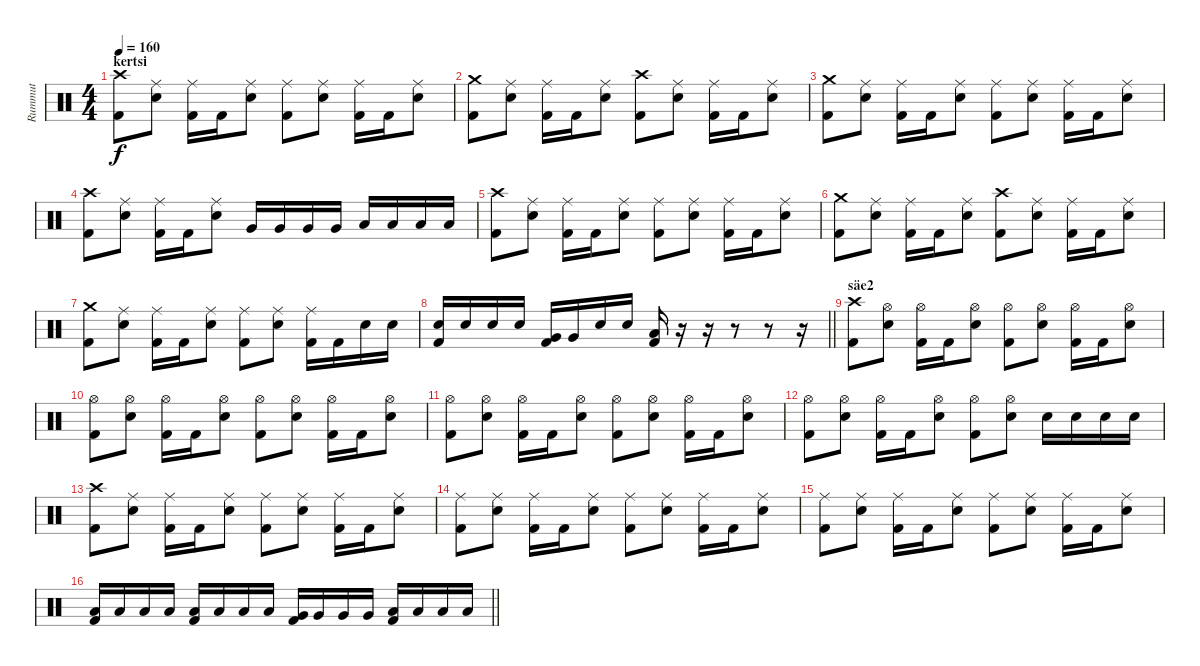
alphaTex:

\track ("Rummut" "Rummut") {instrument percussion}
\staff {score}
\articulation defaults
\ts (4 4)
\section ("" "kertsi")
\tempo 160
\clef neutral
\ks c
("Crash high (hit)" "Kick (hit) 2").8{dy f} ("Ride (middle)" "Snare (hit) 2").8 ("Ride (middle)" "Kick (hit) 2").16 "Kick (hit) 2".16 ("Ride (middle)" "Snare (hit) 2").8 ("Ride (middle)" "Kick (hit) 2").8 ("Ride (middle)" "Snare (hit) 2").8 ("Ride (middle)" "Kick (hit) 2").16 "Kick (hit) 2".16 ("Ride (middle)" "Snare (hit) 2").8 |
("Crash medium (hit)" "Kick (hit) 2").8 ("Ride (middle)" "Snare (hit) 2").8 ("Ride (middle)" "Kick (hit) 2").16 "Kick (hit) 2".16 ("Ride (middle)" "Snare (hit) 2").8 ("Crash high (hit)" "Kick (hit) 2").8 ("Ride (middle)" "Snare (hit) 2").8 ("Ride (middle)" "Kick (hit) 2").16 "Kick (hit) 2".16 ("Ride (middle)" "Snare (hit) 2").8 |
("Crash medium (hit)" "Kick (hit) 2").8 ("Ride (middle)" "Snare (hit) 2").8 ("Ride (middle)" "Kick (hit) 2").16 "Kick (hit) 2".16 ("Ride (middle)" "Snare (hit) 2").8 ("Ride (middle)" "Kick (hit) 2").8 ("Ride (middle)" "Snare (hit) 2").8 ("Ride (middle)" "Kick (hit) 2").16 "Kick (hit) 2".16 ("Ride (middle)" "Snare (hit) 2").8 |
("Crash high (hit)" "Kick (hit) 2").8 ("Ride (middle)" "Snare (hit) 2").8 ("Ride (middle)" "Kick (hit) 2").16 "Kick (hit) 2".16 ("Ride (middle)" "Snare (hit) 2").8 "Very Low Tom (hit)".16 "Very Low Tom (hit)".16 "Very Low Tom (hit)".16 "Very Low Tom (hit)".16 "Low Floor Tom (hit)".16 "Low Floor Tom (hit)".16 "Low Floor Tom (hit)".16 "Low Floor Tom (hit)".16 |
("Crash high (hit)" "Kick (hit) 2").8 ("Ride (middle)" "Snare (hit) 2").8 ("Ride (middle)" "Kick (hit) 2").16 "Kick (hit) 2".16 ("Ride (middle)" "Snare (hit) 2").8 ("Ride (middle)" "Kick (hit) 2").8 ("Ride (middle)" "Snare (hit) 2").8 ("Ride (middle)" "Kick (hit) 2").16 "Kick (hit) 2".16 ("Ride (middle)" "Snare (hit) 2").8 |
("Crash medium (hit)" "Kick (hit) 2").8 ("Ride (middle)" "Snare (hit) 2").8 ("Ride (middle)" "Kick (hit) 2").16 "Kick (hit) 2".16 ("Ride (middle)" "Snare (hit) 2").8 ("Crash high (hit)" "Kick (hit) 2").8 ("Ride (middle)" "Snare (hit) 2").8 ("Ride (middle)" "Kick (hit) 2").16 "Kick (hit) 2".16 ("Ride (middle)" "Snare (hit) 2").8 |
("Crash medium (hit)" "Kick (hit) 2").8 ("Ride (middle)" "Snare (hit) 2").8 ("Ride (middle)" "Kick (hit) 2").16 "Kick (hit) 2".16 ("Ride (middle)" "Snare (hit) 2").8 ("Ride (middle)" "Kick (hit) 2").8 ("Ride (middle)" "Snare (hit) 2").8 ("Ride (middle)" "Kick (hit) 2").16 "Kick (hit) 2".16 "Snare (hit) 2".16 "Snare (hit) 2".16 |
\barLineRight lightlight
("Snare (hit) 2" "Kick (hit) 2").16 "Snare (hit) 2".16 "Snare (hit) 2".16 "Snare (hit) 2".16 ("Very Low Tom (hit)" "Kick (hit) 2").16 "Very Low Tom (hit)".16 "Snare (hit) 2".16 "Snare (hit) 2".16 ("Low Floor Tom (hit)" "Kick (hit) 2").16 r.16 r.16 r.8 r.8 r.16 |
\section ("" "säe2")
("Crash high (hit)" "Kick (hit) 2").8 ("Hi-Hat (open)" "Snare (hit) 2").8 ("Hi-Hat (open)" "Kick (hit) 2").16 "Kick (hit) 2".16 ("Hi-Hat (open)" "Snare (hit) 2").8 ("Hi-Hat (open)" "Kick (hit) 2").8 ("Hi-Hat (open)" "Snare (hit) 2").8 ("Hi-Hat (open)" "Kick (hit) 2").16 "Kick (hit) 2".16 ("Hi-Hat (open)" "Snare (hit) 2").8 |
("Hi-Hat (open)" "Kick (hit) 2").8 ("Hi-Hat (open)" "Snare (hit) 2").8 ("Hi-Hat (open)" "Kick (hit) 2").16 "Kick (hit) 2".16 ("Hi-Hat (open)" "Snare (hit) 2").8 ("Hi-Hat (open)" "Kick (hit) 2").8 ("Hi-Hat (open)" "Snare (hit) 2").8 ("Hi-Hat (open)" "Kick (hit) 2").16 "Kick (hit) 2".16 ("Hi-Hat (open)" "Snare (hit) 2").8 |
("Hi-Hat (open)" "Kick (hit) 2").8 ("Hi-Hat (open)" "Snare (hit) 2").8 ("Hi-Hat (open)" "Kick (hit) 2").16 "Kick (hit) 2".16 ("Hi-Hat (open)" "Snare (hit) 2").8 ("Hi-Hat (open)" "Kick (hit) 2").8 ("Hi-Hat (open)" "Snare (hit) 2").8 ("Hi-Hat (open)" "Kick (hit) 2").16 "Kick (hit) 2".16 ("Hi-Hat (open)" "Snare (hit) 2").8 |
("Hi-Hat (open)" "Kick (hit) 2").8 ("Hi-Hat (open)" "Snare (hit) 2").8 ("Hi-Hat (open)" "Kick (hit) 2").16 "Kick (hit) 2".16 ("Hi-Hat (open)" "Snare (hit) 2").8 ("Hi-Hat (open)" "Kick (hit) 2").8 ("Hi-Hat (open)" "Snare (hit) 2").8 "Snare (hit) 2".16 "Snare (hit) 2".16 "Snare (hit) 2".16 "Snare (hit) 2".16 |
("Crash high (hit)" "Kick (hit) 2").8 ("Ride (middle)" "Snare (hit) 2").8 ("Ride (middle)" "Kick (hit) 2").16 "Kick (hit) 2".16 ("Ride (middle)" "Snare (hit) 2").8 ("Ride (middle)" "Kick (hit) 2").8 ("Ride (middle)" "Snare (hit) 2").8 ("Ride (middle)" "Kick (hit) 2").16 "Kick (hit) 2".16 ("Ride (middle)" "Snare (hit) 2").8 |
("Ride (middle)" "Kick (hit) 2").8 ("Ride (middle)" "Snare (hit) 2").8 ("Ride (middle)" "Kick (hit) 2").16 "Kick (hit) 2".16 ("Ride (middle)" "Snare (hit) 2").8 ("Ride (middle)" "Kick (hit) 2").8 ("Ride (middle)" "Snare (hit) 2").8 ("Ride (middle)" "Kick (hit) 2").16 "Kick (hit) 2".16 ("Ride (middle)" "Snare (hit) 2").8 |
("Ride (middle)" "Kick (hit) 2").8 ("Ride (middle)" "Snare (hit) 2").8 ("Ride (middle)" "Kick (hit) 2").16 "Kick (hit) 2".16 ("Ride (middle)" "Snare (hit) 2").8 ("Ride (middle)" "Kick (hit) 2").8 ("Ride (middle)" "Snare (hit) 2").8 ("Ride (middle)" "Kick (hit) 2").16 "Kick (hit) 2".16 ("Ride (middle)" "Snare (hit) 2").8 |
\barLineRight lightlight
("Low Tom (hit)" "Kick (hit) 2").16 "Low Tom (hit)".16 "Low Tom (hit)".16 "Low Tom (hit)".16 ("Low Tom (hit)" "Kick (hit) 2").16 "Low Tom (hit)".16 "Low Tom (hit)".16 "Low Tom (hit)".16 ("Very Low Tom (hit)" "Kick (hit) 2").16 "Very Low Tom (hit)".16 "Very Low Tom (hit)".16 "Very Low Tom (hit)".16 ("Low Floor Tom (hit)" "Kick (hit) 2").16 "Low Floor Tom (hit)".16 "Low Floor Tom (hit)".16 "Low Floor Tom (hit)".16
